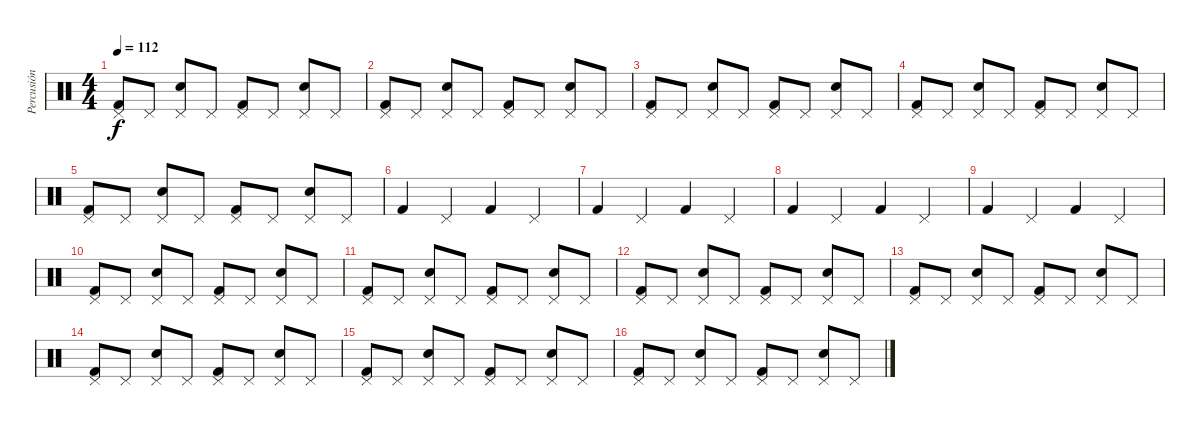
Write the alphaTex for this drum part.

\track ("Percusión" "Percusión") {instrument percussion}
\staff {score}
\articulation defaults
\ts (4 4)
\tempo 112
\clef neutral
\ks c
("Pedal Hi-Hat (hit)" "Kick (hit) 2").8{dy f} "Pedal Hi-Hat (hit)".8 ("Snare (hit) 2" "Pedal Hi-Hat (hit)").8 "Pedal Hi-Hat (hit)".8 ("Pedal Hi-Hat (hit)" "Kick (hit) 2").8 "Pedal Hi-Hat (hit)".8 ("Snare (hit) 2" "Pedal Hi-Hat (hit)").8 "Pedal Hi-Hat (hit)".8 |
("Pedal Hi-Hat (hit)" "Kick (hit) 2").8 "Pedal Hi-Hat (hit)".8 ("Snare (hit) 2" "Pedal Hi-Hat (hit)").8 "Pedal Hi-Hat (hit)".8 ("Pedal Hi-Hat (hit)" "Kick (hit) 2").8 "Pedal Hi-Hat (hit)".8 ("Snare (hit) 2" "Pedal Hi-Hat (hit)").8 "Pedal Hi-Hat (hit)".8 |
("Pedal Hi-Hat (hit)" "Kick (hit) 2").8 "Pedal Hi-Hat (hit)".8 ("Snare (hit) 2" "Pedal Hi-Hat (hit)").8 "Pedal Hi-Hat (hit)".8 ("Pedal Hi-Hat (hit)" "Kick (hit) 2").8 "Pedal Hi-Hat (hit)".8 ("Snare (hit) 2" "Pedal Hi-Hat (hit)").8 "Pedal Hi-Hat (hit)".8 |
("Pedal Hi-Hat (hit)" "Kick (hit) 2").8 "Pedal Hi-Hat (hit)".8 ("Snare (hit) 2" "Pedal Hi-Hat (hit)").8 "Pedal Hi-Hat (hit)".8 ("Pedal Hi-Hat (hit)" "Kick (hit) 2").8 "Pedal Hi-Hat (hit)".8 ("Snare (hit) 2" "Pedal Hi-Hat (hit)").8 "Pedal Hi-Hat (hit)".8 |
("Pedal Hi-Hat (hit)" "Kick (hit) 2").8 "Pedal Hi-Hat (hit)".8 ("Snare (hit) 2" "Pedal Hi-Hat (hit)").8 "Pedal Hi-Hat (hit)".8 ("Pedal Hi-Hat (hit)" "Kick (hit) 2").8 "Pedal Hi-Hat (hit)".8 ("Snare (hit) 2" "Pedal Hi-Hat (hit)").8 "Pedal Hi-Hat (hit)".8 |
"Kick (hit) 2".4 "Pedal Hi-Hat (hit)".4 "Kick (hit) 2".4 "Pedal Hi-Hat (hit)".4 |
"Kick (hit) 2".4 "Pedal Hi-Hat (hit)".4 "Kick (hit) 2".4 "Pedal Hi-Hat (hit)".4 |
"Kick (hit) 2".4 "Pedal Hi-Hat (hit)".4 "Kick (hit) 2".4 "Pedal Hi-Hat (hit)".4 |
"Kick (hit) 2".4 "Pedal Hi-Hat (hit)".4 "Kick (hit) 2".4 "Pedal Hi-Hat (hit)".4 |
("Pedal Hi-Hat (hit)" "Kick (hit) 2").8 "Pedal Hi-Hat (hit)".8 ("Snare (hit) 2" "Pedal Hi-Hat (hit)").8 "Pedal Hi-Hat (hit)".8 ("Pedal Hi-Hat (hit)" "Kick (hit) 2").8 "Pedal Hi-Hat (hit)".8 ("Snare (hit) 2" "Pedal Hi-Hat (hit)").8 "Pedal Hi-Hat (hit)".8 |
("Pedal Hi-Hat (hit)" "Kick (hit) 2").8 "Pedal Hi-Hat (hit)".8 ("Snare (hit) 2" "Pedal Hi-Hat (hit)").8 "Pedal Hi-Hat (hit)".8 ("Pedal Hi-Hat (hit)" "Kick (hit) 2").8 "Pedal Hi-Hat (hit)".8 ("Snare (hit) 2" "Pedal Hi-Hat (hit)").8 "Pedal Hi-Hat (hit)".8 |
("Pedal Hi-Hat (hit)" "Kick (hit) 2").8 "Pedal Hi-Hat (hit)".8 ("Snare (hit) 2" "Pedal Hi-Hat (hit)").8 "Pedal Hi-Hat (hit)".8 ("Pedal Hi-Hat (hit)" "Kick (hit) 2").8 "Pedal Hi-Hat (hit)".8 ("Snare (hit) 2" "Pedal Hi-Hat (hit)").8 "Pedal Hi-Hat (hit)".8 |
("Pedal Hi-Hat (hit)" "Kick (hit) 2").8 "Pedal Hi-Hat (hit)".8 ("Snare (hit) 2" "Pedal Hi-Hat (hit)").8 "Pedal Hi-Hat (hit)".8 ("Pedal Hi-Hat (hit)" "Kick (hit) 2").8 "Pedal Hi-Hat (hit)".8 ("Snare (hit) 2" "Pedal Hi-Hat (hit)").8 "Pedal Hi-Hat (hit)".8 |
("Pedal Hi-Hat (hit)" "Kick (hit) 2").8 "Pedal Hi-Hat (hit)".8 ("Snare (hit) 2" "Pedal Hi-Hat (hit)").8 "Pedal Hi-Hat (hit)".8 ("Pedal Hi-Hat (hit)" "Kick (hit) 2").8 "Pedal Hi-Hat (hit)".8 ("Snare (hit) 2" "Pedal Hi-Hat (hit)").8 "Pedal Hi-Hat (hit)".8 |
("Pedal Hi-Hat (hit)" "Kick (hit) 2").8 "Pedal Hi-Hat (hit)".8 ("Snare (hit) 2" "Pedal Hi-Hat (hit)").8 "Pedal Hi-Hat (hit)".8 ("Pedal Hi-Hat (hit)" "Kick (hit) 2").8 "Pedal Hi-Hat (hit)".8 ("Snare (hit) 2" "Pedal Hi-Hat (hit)").8 "Pedal Hi-Hat (hit)".8 |
("Pedal Hi-Hat (hit)" "Kick (hit) 2").8 "Pedal Hi-Hat (hit)".8 ("Snare (hit) 2" "Pedal Hi-Hat (hit)").8 "Pedal Hi-Hat (hit)".8 ("Pedal Hi-Hat (hit)" "Kick (hit) 2").8 "Pedal Hi-Hat (hit)".8 ("Snare (hit) 2" "Pedal Hi-Hat (hit)").8 "Pedal Hi-Hat (hit)".8
